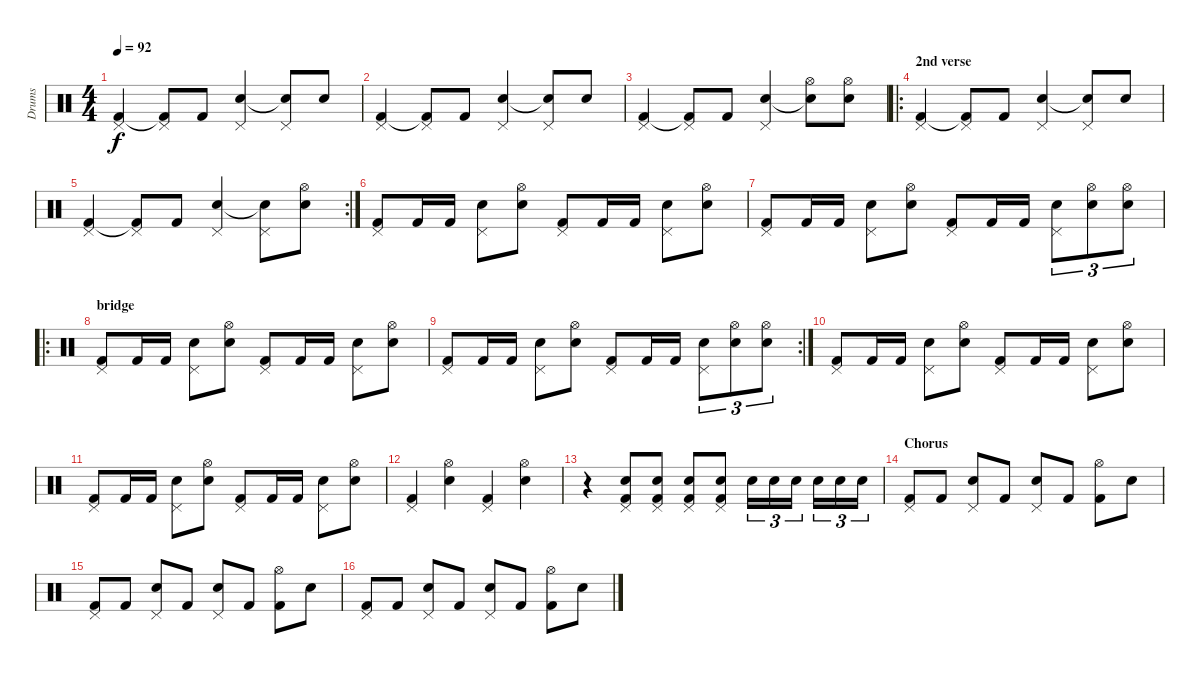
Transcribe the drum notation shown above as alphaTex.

\track ("Drums" "Drums") {instrument percussion}
\staff {score}
\articulation defaults
\ts (4 4)
\tempo 92
\clef neutral
\ks c
("Pedal Hi-Hat (hit)" "Kick (hit) 2").4{dy f} ("Pedal Hi-Hat (hit)" "Kick (hit) 2"{t}).8 "Kick (hit) 2".8 ("Pedal Hi-Hat (hit)" "Snare (hit) 2").4 ("Pedal Hi-Hat (hit)" "Snare (hit)"{t}).8 "Snare (hit) 2".8 |
("Pedal Hi-Hat (hit)" "Kick (hit) 2").4 ("Pedal Hi-Hat (hit)" "Kick (hit) 2"{t}).8 "Kick (hit) 2".8 ("Pedal Hi-Hat (hit)" "Snare (hit) 2").4 ("Pedal Hi-Hat (hit)" "Snare (hit)"{t}).8 "Snare (hit) 2".8 |
("Pedal Hi-Hat (hit)" "Kick (hit) 2").4 ("Pedal Hi-Hat (hit)" "Kick (hit) 2"{t}).8 "Kick (hit) 2".8 ("Pedal Hi-Hat (hit)" "Snare (hit) 2").4 ("Hi-Hat (open)" "Snare (hit)"{t}).8 ("Hi-Hat (open)" "Snare (hit) 2").8 |
\ro
\section ("" "2nd verse")
("Pedal Hi-Hat (hit)" "Kick (hit) 2").4 ("Pedal Hi-Hat (hit)" "Kick (hit) 2"{t}).8 "Kick (hit) 2".8 ("Pedal Hi-Hat (hit)" "Snare (hit) 2").4 ("Pedal Hi-Hat (hit)" "Snare (hit)"{t}).8 "Snare (hit) 2".8 |
\rc 2
("Pedal Hi-Hat (hit)" "Kick (hit) 2").4 ("Pedal Hi-Hat (hit)" "Kick (hit) 2"{t}).8 "Kick (hit) 2".8 ("Pedal Hi-Hat (hit)" "Snare (hit) 2").4 ("Pedal Hi-Hat (hit)" "Snare (hit)"{t}).8 ("Hi-Hat (open)" "Snare (hit) 2").8 |
("Pedal Hi-Hat (hit)" "Kick (hit) 2").8 "Kick (hit) 2".16 "Kick (hit) 2".16 ("Pedal Hi-Hat (hit)" "Snare (hit) 2").8 ("Hi-Hat (open)" "Snare (hit) 2").8 ("Pedal Hi-Hat (hit)" "Kick (hit) 2").8 "Kick (hit) 2".16 "Kick (hit) 2".16 ("Pedal Hi-Hat (hit)" "Snare (hit) 2").8 ("Hi-Hat (open)" "Snare (hit) 2").8 |
("Pedal Hi-Hat (hit)" "Kick (hit) 2").8 "Kick (hit) 2".16 "Kick (hit) 2".16 ("Pedal Hi-Hat (hit)" "Snare (hit) 2").8 ("Hi-Hat (open)" "Snare (hit) 2").8 ("Pedal Hi-Hat (hit)" "Kick (hit) 2").8 "Kick (hit) 2".16 "Kick (hit) 2".16 ("Pedal Hi-Hat (hit)" "Snare (hit) 2").8{tu (3 2)} ("Hi-Hat (open)" "Snare (hit) 2").8{tu (3 2)} ("Hi-Hat (open)" "Snare (hit) 2").8{tu (3 2)} |
\ro
\section ("" "bridge")
("Pedal Hi-Hat (hit)" "Kick (hit) 2").8 "Kick (hit) 2".16 "Kick (hit) 2".16 ("Pedal Hi-Hat (hit)" "Snare (hit) 2").8 ("Hi-Hat (open)" "Snare (hit) 2").8 ("Pedal Hi-Hat (hit)" "Kick (hit) 2").8 "Kick (hit) 2".16 "Kick (hit) 2".16 ("Pedal Hi-Hat (hit)" "Snare (hit) 2").8 ("Hi-Hat (open)" "Snare (hit) 2").8 |
\rc 2
("Pedal Hi-Hat (hit)" "Kick (hit) 2").8 "Kick (hit) 2".16 "Kick (hit) 2".16 ("Pedal Hi-Hat (hit)" "Snare (hit) 2").8 ("Hi-Hat (open)" "Snare (hit) 2").8 ("Pedal Hi-Hat (hit)" "Kick (hit) 2").8 "Kick (hit) 2".16 "Kick (hit) 2".16 ("Pedal Hi-Hat (hit)" "Snare (hit) 2").8{tu (3 2)} ("Hi-Hat (open)" "Snare (hit) 2").8{tu (3 2)} ("Hi-Hat (open)" "Snare (hit) 2").8{tu (3 2)} |
("Pedal Hi-Hat (hit)" "Kick (hit) 2").8 "Kick (hit) 2".16 "Kick (hit) 2".16 ("Pedal Hi-Hat (hit)" "Snare (hit) 2").8 ("Hi-Hat (open)" "Snare (hit) 2").8 ("Pedal Hi-Hat (hit)" "Kick (hit) 2").8 "Kick (hit) 2".16 "Kick (hit) 2".16 ("Pedal Hi-Hat (hit)" "Snare (hit) 2").8 ("Hi-Hat (open)" "Snare (hit) 2").8 |
("Pedal Hi-Hat (hit)" "Kick (hit) 2").8 "Kick (hit) 2".16 "Kick (hit) 2".16 ("Pedal Hi-Hat (hit)" "Snare (hit) 2").8 ("Hi-Hat (open)" "Snare (hit) 2").8 ("Pedal Hi-Hat (hit)" "Kick (hit) 2").8 "Kick (hit) 2".16 "Kick (hit) 2".16 ("Pedal Hi-Hat (hit)" "Snare (hit) 2").8 ("Hi-Hat (open)" "Snare (hit) 2").8 |
("Pedal Hi-Hat (hit)" "Kick (hit) 2").4 ("Hi-Hat (open)" "Snare (hit) 2").4 ("Pedal Hi-Hat (hit)" "Kick (hit) 2").4 ("Hi-Hat (open)" "Snare (hit) 2").4 |
r.4 ("Pedal Hi-Hat (hit)" "Snare (hit) 2" "Kick (hit) 2").8 ("Pedal Hi-Hat (hit)" "Snare (hit) 2" "Kick (hit) 2").8 ("Pedal Hi-Hat (hit)" "Snare (hit) 2" "Kick (hit) 2").8 ("Pedal Hi-Hat (hit)" "Snare (hit) 2" "Kick (hit) 2").8 "Snare (hit) 2".16{tu (3 2)} "Snare (hit) 2".16{tu (3 2)} "Snare (hit) 2".16{tu (3 2)} "Snare (hit) 2".16{tu (3 2)} "Snare (hit) 2".16{tu (3 2)} "Snare (hit) 2".16{tu (3 2)} |
\section ("" "Chorus")
("Pedal Hi-Hat (hit)" "Kick (hit) 2").8 "Kick (hit) 2".8 ("Pedal Hi-Hat (hit)" "Snare (hit) 2").8 "Kick (hit) 2".8 ("Pedal Hi-Hat (hit)" "Snare (hit) 2").8 "Kick (hit) 2".8 ("Hi-Hat (open)" "Kick (hit) 2").8 "Snare (hit) 2".8 |
("Pedal Hi-Hat (hit)" "Kick (hit) 2").8 "Kick (hit) 2".8 ("Pedal Hi-Hat (hit)" "Snare (hit) 2").8 "Kick (hit) 2".8 ("Pedal Hi-Hat (hit)" "Snare (hit) 2").8 "Kick (hit) 2".8 ("Hi-Hat (open)" "Kick (hit) 2").8 "Snare (hit) 2".8 |
("Pedal Hi-Hat (hit)" "Kick (hit) 2").8 "Kick (hit) 2".8 ("Pedal Hi-Hat (hit)" "Snare (hit) 2").8 "Kick (hit) 2".8 ("Pedal Hi-Hat (hit)" "Snare (hit) 2").8 "Kick (hit) 2".8 ("Hi-Hat (open)" "Kick (hit) 2").8 "Snare (hit) 2".8
